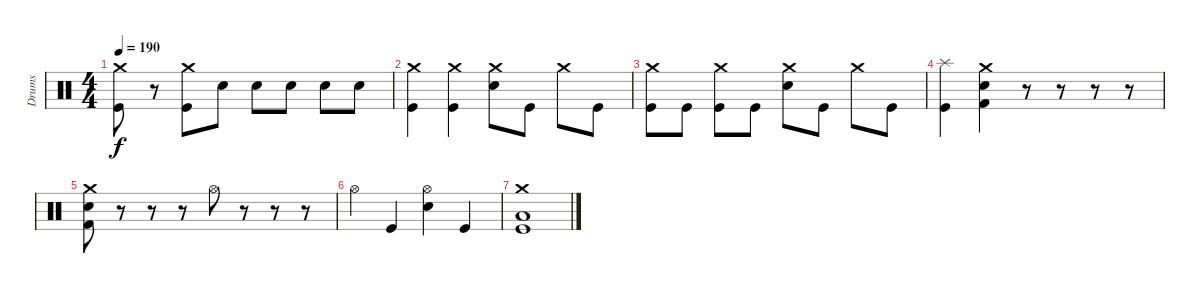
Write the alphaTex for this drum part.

\track ("Drums" "Drums") {instrument percussion}
\staff {score}
\articulation defaults
\ts (4 4)
\tempo 190
\clef neutral
\ks c
("Crash medium (hit)" "Kick (hit)").8{dy f} r.8 ("Crash medium (hit)" "Kick (hit)").8 "Electric Snare (hit)".8 "Electric Snare (hit)".8 "Electric Snare (hit)".8 "Electric Snare (hit)".8 "Electric Snare (hit)".8 |
("Crash medium (hit)" "Kick (hit)").4 ("Crash medium (hit)" "Kick (hit)").4 ("Crash medium (hit)" "Electric Snare (hit)").8 "Kick (hit)".8 "Crash medium (hit)".8 "Kick (hit)".8 |
("Crash medium (hit)" "Kick (hit)").8 "Kick (hit)".8 ("Crash medium (hit)" "Kick (hit)").8 "Kick (hit)".8 ("Crash medium (hit)" "Electric Snare (hit)").8 "Kick (hit)".8 "Crash medium (hit)".8 "Kick (hit)".8 |
("Splash (hit)" "Kick (hit)").4 ("Crash medium (hit)" "Electric Snare (hit)" "Kick (hit) 2").4 r.8 r.8 r.8 r.8 |
("Crash medium (hit)" "Electric Snare (hit)" "Kick (hit) 2").8 r.8 r.8 r.8 "Hi-Hat (open)".8 r.8 r.8 r.8 |
"Hi-Hat (open)".4 "Kick (hit)".4 ("Hi-Hat (open)" "Electric Snare (hit)").4 "Kick (hit)".4 |
("Crash medium (hit)" "Low Floor Tom (hit)" "Kick (hit)").1
